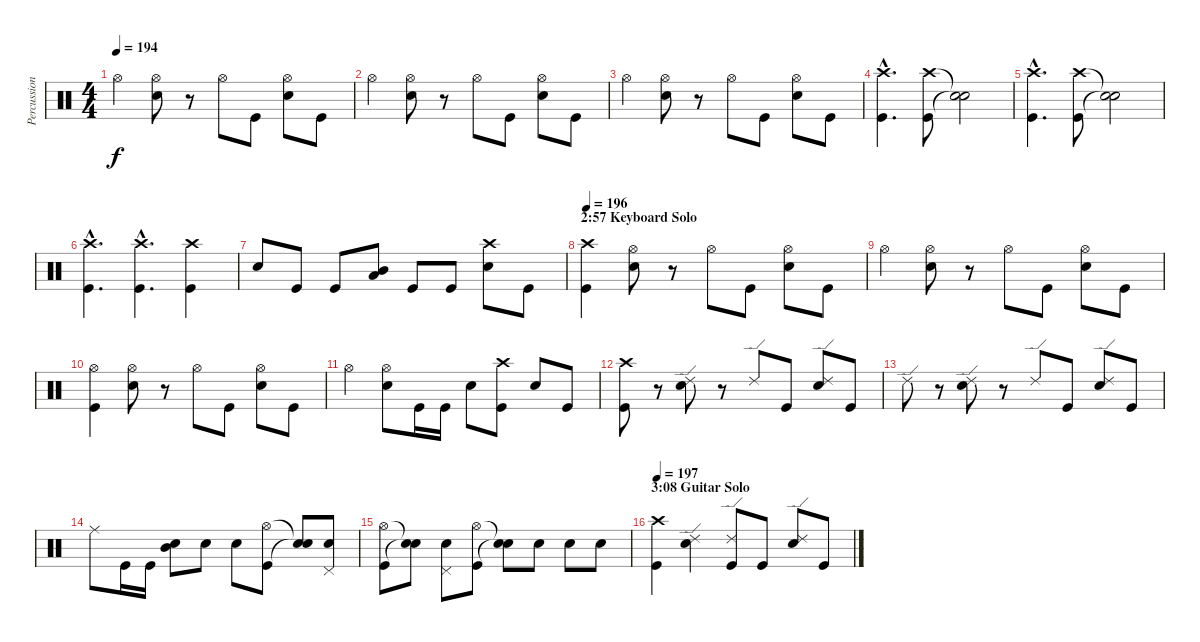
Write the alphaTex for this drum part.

\track ("Percussion" "Percussion") {instrument percussion}
\staff {score}
\articulation defaults
\ts (4 4)
\tempo 194
\clef neutral
\ks c "Hi-Hat (open)".4{dy f}
("Hi-Hat (open)" "Snare (hit) 2").8 r.8 "Hi-Hat (open)".8 "Kick (hit)".8 ("Hi-Hat (open)" "Snare (hit) 2").8 "Kick (hit)".8 |
"Hi-Hat (open)".4 ("Hi-Hat (open)" "Snare (hit) 2").8 r.8 "Hi-Hat (open)".8 "Kick (hit)".8 ("Hi-Hat (open)" "Snare (hit) 2").8 "Kick (hit)".8 |
"Hi-Hat (open)".4 ("Hi-Hat (open)" "Snare (hit) 2").8 r.8 "Hi-Hat (open)".8 "Kick (hit)".8 ("Hi-Hat (open)" "Snare (hit) 2").8 "Kick (hit)".8 |
("Crash high (hit)"{hac} "Kick (hit)"{hac}).4{d} ("Crash high (hit)" "Kick (hit)").8 ("Snare (hit)"{t} "Snare (hit)"{t}).2 |
("Crash high (hit)"{hac} "Kick (hit)"{hac}).4{d} ("Crash high (hit)" "Kick (hit)").8 ("Snare (hit)"{t} "Snare (hit)"{t}).2 |
("Crash high (hit)"{hac} "Kick (hit)"{hac}).4{d} ("Crash high (hit)"{hac} "Kick (hit)"{hac}).4{d} ("Crash high (hit)" "Kick (hit)").4 |
"Snare (hit) 2".8 "Kick (hit)".8 "Kick (hit)".8 ("Mid Tom (hit)" "Low Tom (hit)").8 "Kick (hit)".8 "Kick (hit)".8 ("Crash high (hit)" "Snare (hit) 2").8 "Kick (hit)".8 |
\section ("" "2:57 Keyboard Solo")
\tempo 196
("Crash high (hit)" "Kick (hit)").4 ("Hi-Hat (open)" "Snare (hit) 2").8 r.8 "Hi-Hat (open)".8 "Kick (hit)".8 ("Hi-Hat (open)" "Snare (hit) 2").8 "Kick (hit)".8 |
"Hi-Hat (open)".4 ("Hi-Hat (open)" "Snare (hit) 2").8 r.8 "Hi-Hat (open)".8 "Kick (hit)".8 ("Hi-Hat (open)" "Snare (hit) 2").8 "Kick (hit)".8 |
("Hi-Hat (open)" "Kick (hit)").4 ("Hi-Hat (open)" "Snare (hit) 2").8 r.8 "Hi-Hat (open)".8 "Kick (hit)".8 ("Hi-Hat (open)" "Snare (hit) 2").8 "Kick (hit)".8 |
"Hi-Hat (open)".4 ("Hi-Hat (open)" "Snare (hit) 2").8 "Kick (hit)".16 "Kick (hit)".16 "Snare (hit) 2".8 ("Crash high (hit)" "Kick (hit)").8 "Snare (hit) 2".8 "Kick (hit)".8 |
("Crash high (hit)" "Kick (hit)").8 r.8 ("Ride (edge) 2" "Snare (hit) 2").8 r.8 "Ride (edge) 2".8 "Kick (hit)".8 ("Ride (edge) 2" "Snare (hit) 2").8 "Kick (hit)".8 |
"Ride (edge) 2".8 r.8 ("Ride (edge) 2" "Snare (hit) 2").8 r.8 "Ride (edge) 2".8 "Kick (hit)".8 ("Ride (edge) 2" "Snare (hit) 2").8 "Kick (hit)".8 |
"Ride (middle)".8 "Kick (hit)".16 "Kick (hit)".16 ("Mid Tom (hit)" "Snare (hit) 2").8 "Snare (hit) 2".8 "Snare (hit) 2".8 ("Hi-Hat (open)" "Kick (hit)").8 ("Snare (hit)"{t} "Snare (hit)"{t}).8 ("Pedal Hi-Hat (hit)" "Snare (hit) 2").8 |
("Hi-Hat (open)" "Kick (hit)").8 ("Snare (hit)"{t} "Snare (hit)"{t}).8 ("Pedal Hi-Hat (hit)" "Snare (hit) 2").8 ("Hi-Hat (open)" "Kick (hit)").8 ("Snare (hit)"{t} "Snare (hit)"{t}).8 "Snare (hit) 2".8 "Snare (hit) 2".8 "Snare (hit) 2".8 |
\section ("" "3:08 Guitar Solo")
\tempo 197
("Crash high (hit)" "Kick (hit)").4 ("Ride (edge) 2" "Snare (hit) 2").4 ("Ride (edge) 2" "Kick (hit)").8 "Kick (hit)".8 ("Ride (edge) 2" "Snare (hit) 2").8 "Kick (hit)".8
